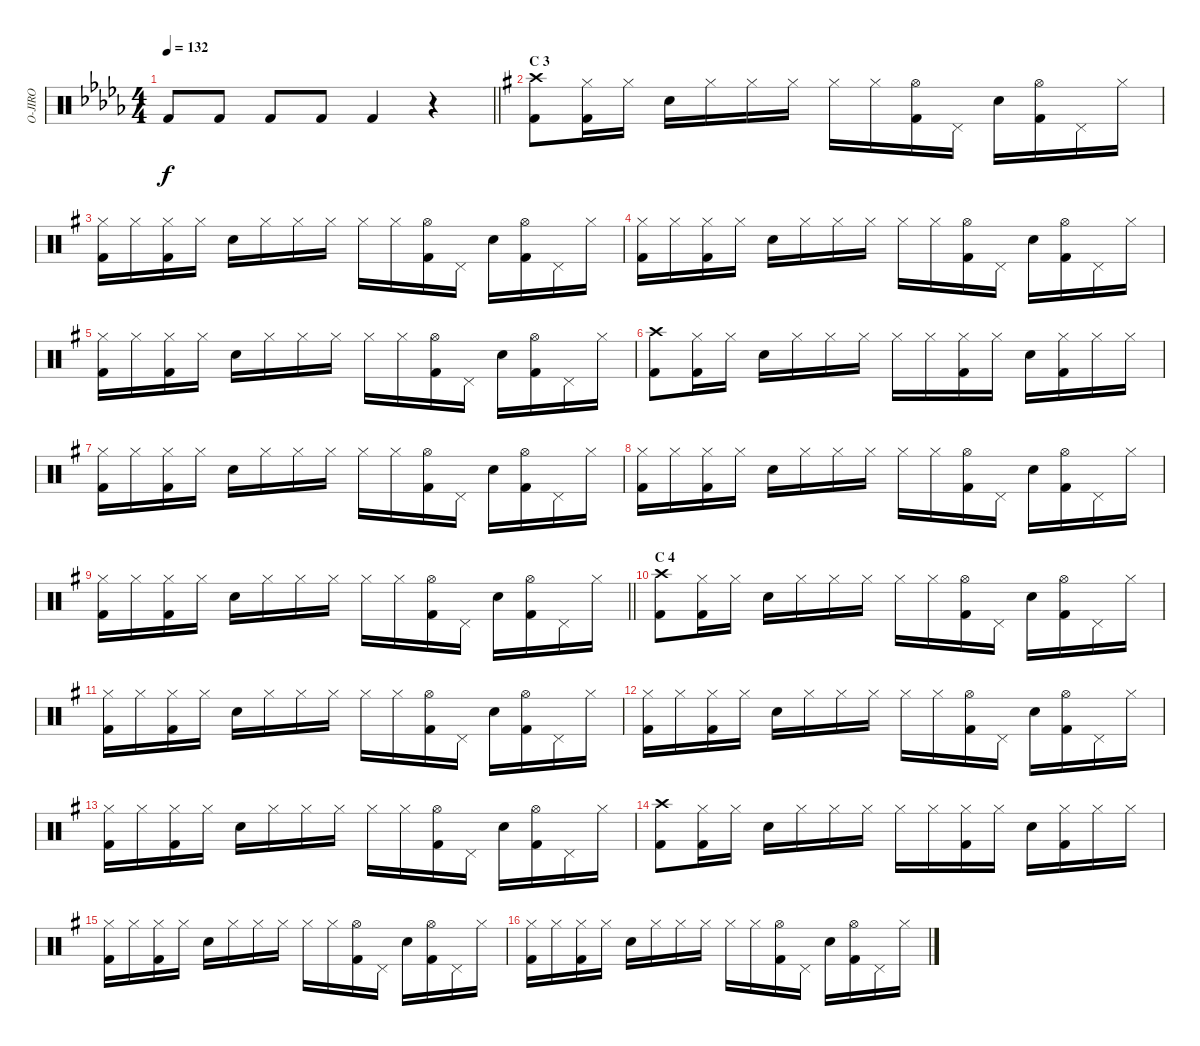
\track ("O-JIRO" "O-JIRO") {instrument percussion}
\staff {score}
\articulation defaults
\ts (4 4)
\tempo 132
\clef neutral
\barLineRight lightlight
\ks db "Kick (hit) 2".8{dy f} "Kick (hit) 2".8 "Kick (hit) 2".8 "Kick (hit) 2".8 "Kick (hit) 2".4
r.4 |
\section ("" "C 3")
\ks g
("Crash high (hit)" "Kick (hit) 2").8 ("Hi-Hat (closed)" "Kick (hit) 2").16 "Hi-Hat (closed)".16 "Snare (hit) 2".16 "Hi-Hat (closed)".16 "Hi-Hat (closed)".16 "Hi-Hat (closed)".16 "Hi-Hat (closed)".16 "Hi-Hat (closed)".16 ("Hi-Hat (open)" "Kick (hit) 2").16 "Pedal Hi-Hat (hit)".16 "Snare (hit) 2".16 ("Hi-Hat (open)" "Kick (hit) 2").16 "Pedal Hi-Hat (hit)".16 "Hi-Hat (closed)".16 |
("Hi-Hat (closed)" "Kick (hit) 2").16 "Hi-Hat (closed)".16 ("Hi-Hat (closed)" "Kick (hit) 2").16 "Hi-Hat (closed)".16 "Snare (hit) 2".16 "Hi-Hat (closed)".16 "Hi-Hat (closed)".16 "Hi-Hat (closed)".16 "Hi-Hat (closed)".16 "Hi-Hat (closed)".16 ("Hi-Hat (open)" "Kick (hit) 2").16 "Pedal Hi-Hat (hit)".16 "Snare (hit) 2".16 ("Hi-Hat (open)" "Kick (hit) 2").16 "Pedal Hi-Hat (hit)".16 "Hi-Hat (closed)".16 |
("Hi-Hat (closed)" "Kick (hit) 2").16 "Hi-Hat (closed)".16 ("Hi-Hat (closed)" "Kick (hit) 2").16 "Hi-Hat (closed)".16 "Snare (hit) 2".16 "Hi-Hat (closed)".16 "Hi-Hat (closed)".16 "Hi-Hat (closed)".16 "Hi-Hat (closed)".16 "Hi-Hat (closed)".16 ("Hi-Hat (open)" "Kick (hit) 2").16 "Pedal Hi-Hat (hit)".16 "Snare (hit) 2".16 ("Hi-Hat (open)" "Kick (hit) 2").16 "Pedal Hi-Hat (hit)".16 "Hi-Hat (closed)".16 |
("Hi-Hat (closed)" "Kick (hit) 2").16 "Hi-Hat (closed)".16 ("Hi-Hat (closed)" "Kick (hit) 2").16 "Hi-Hat (closed)".16 "Snare (hit) 2".16 "Hi-Hat (closed)".16 "Hi-Hat (closed)".16 "Hi-Hat (closed)".16 "Hi-Hat (closed)".16 "Hi-Hat (closed)".16 ("Hi-Hat (open)" "Kick (hit) 2").16 "Pedal Hi-Hat (hit)".16 "Snare (hit) 2".16 ("Hi-Hat (open)" "Kick (hit) 2").16 "Pedal Hi-Hat (hit)".16 "Hi-Hat (closed)".16 |
("Crash high (hit)" "Kick (hit) 2").8 ("Hi-Hat (closed)" "Kick (hit) 2").16 "Hi-Hat (closed)".16 "Snare (hit) 2".16 "Hi-Hat (closed)".16 "Hi-Hat (closed)".16 "Hi-Hat (closed)".16 "Hi-Hat (closed)".16 "Hi-Hat (closed)".16 ("Hi-Hat (closed)" "Kick (hit) 2").16 "Hi-Hat (closed)".16 "Snare (hit) 2".16 ("Hi-Hat (closed)" "Kick (hit) 2").16 "Hi-Hat (closed)".16 "Hi-Hat (closed)".16 |
("Hi-Hat (closed)" "Kick (hit) 2").16 "Hi-Hat (closed)".16 ("Hi-Hat (closed)" "Kick (hit) 2").16 "Hi-Hat (closed)".16 "Snare (hit) 2".16 "Hi-Hat (closed)".16 "Hi-Hat (closed)".16 "Hi-Hat (closed)".16 "Hi-Hat (closed)".16 "Hi-Hat (closed)".16 ("Hi-Hat (open)" "Kick (hit) 2").16 "Pedal Hi-Hat (hit)".16 "Snare (hit) 2".16 ("Hi-Hat (open)" "Kick (hit) 2").16 "Pedal Hi-Hat (hit)".16 "Hi-Hat (closed)".16 |
("Hi-Hat (closed)" "Kick (hit) 2").16 "Hi-Hat (closed)".16 ("Hi-Hat (closed)" "Kick (hit) 2").16 "Hi-Hat (closed)".16 "Snare (hit) 2".16 "Hi-Hat (closed)".16 "Hi-Hat (closed)".16 "Hi-Hat (closed)".16 "Hi-Hat (closed)".16 "Hi-Hat (closed)".16 ("Hi-Hat (open)" "Kick (hit) 2").16 "Pedal Hi-Hat (hit)".16 "Snare (hit) 2".16 ("Hi-Hat (open)" "Kick (hit) 2").16 "Pedal Hi-Hat (hit)".16 "Hi-Hat (closed)".16 |
\barLineRight lightlight
("Hi-Hat (closed)" "Kick (hit) 2").16 "Hi-Hat (closed)".16 ("Hi-Hat (closed)" "Kick (hit) 2").16 "Hi-Hat (closed)".16 "Snare (hit) 2".16 "Hi-Hat (closed)".16 "Hi-Hat (closed)".16 "Hi-Hat (closed)".16 "Hi-Hat (closed)".16 "Hi-Hat (closed)".16 ("Hi-Hat (open)" "Kick (hit) 2").16 "Pedal Hi-Hat (hit)".16 "Snare (hit) 2".16 ("Hi-Hat (open)" "Kick (hit) 2").16 "Pedal Hi-Hat (hit)".16 "Hi-Hat (closed)".16 |
\section ("" "C 4")
("Crash high (hit)" "Kick (hit) 2").8 ("Hi-Hat (closed)" "Kick (hit) 2").16 "Hi-Hat (closed)".16 "Snare (hit) 2".16 "Hi-Hat (closed)".16 "Hi-Hat (closed)".16 "Hi-Hat (closed)".16 "Hi-Hat (closed)".16 "Hi-Hat (closed)".16 ("Hi-Hat (open)" "Kick (hit) 2").16 "Pedal Hi-Hat (hit)".16 "Snare (hit) 2".16 ("Hi-Hat (open)" "Kick (hit) 2").16 "Pedal Hi-Hat (hit)".16 "Hi-Hat (closed)".16 |
("Hi-Hat (closed)" "Kick (hit) 2").16 "Hi-Hat (closed)".16 ("Hi-Hat (closed)" "Kick (hit) 2").16 "Hi-Hat (closed)".16 "Snare (hit) 2".16 "Hi-Hat (closed)".16 "Hi-Hat (closed)".16 "Hi-Hat (closed)".16 "Hi-Hat (closed)".16 "Hi-Hat (closed)".16 ("Hi-Hat (open)" "Kick (hit) 2").16 "Pedal Hi-Hat (hit)".16 "Snare (hit) 2".16 ("Hi-Hat (open)" "Kick (hit) 2").16 "Pedal Hi-Hat (hit)".16 "Hi-Hat (closed)".16 |
("Hi-Hat (closed)" "Kick (hit) 2").16 "Hi-Hat (closed)".16 ("Hi-Hat (closed)" "Kick (hit) 2").16 "Hi-Hat (closed)".16 "Snare (hit) 2".16 "Hi-Hat (closed)".16 "Hi-Hat (closed)".16 "Hi-Hat (closed)".16 "Hi-Hat (closed)".16 "Hi-Hat (closed)".16 ("Hi-Hat (open)" "Kick (hit) 2").16 "Pedal Hi-Hat (hit)".16 "Snare (hit) 2".16 ("Hi-Hat (open)" "Kick (hit) 2").16 "Pedal Hi-Hat (hit)".16 "Hi-Hat (closed)".16 |
("Hi-Hat (closed)" "Kick (hit) 2").16 "Hi-Hat (closed)".16 ("Hi-Hat (closed)" "Kick (hit) 2").16 "Hi-Hat (closed)".16 "Snare (hit) 2".16 "Hi-Hat (closed)".16 "Hi-Hat (closed)".16 "Hi-Hat (closed)".16 "Hi-Hat (closed)".16 "Hi-Hat (closed)".16 ("Hi-Hat (open)" "Kick (hit) 2").16 "Pedal Hi-Hat (hit)".16 "Snare (hit) 2".16 ("Hi-Hat (open)" "Kick (hit) 2").16 "Pedal Hi-Hat (hit)".16 "Hi-Hat (closed)".16 |
("Crash high (hit)" "Kick (hit) 2").8 ("Hi-Hat (closed)" "Kick (hit) 2").16 "Hi-Hat (closed)".16 "Snare (hit) 2".16 "Hi-Hat (closed)".16 "Hi-Hat (closed)".16 "Hi-Hat (closed)".16 "Hi-Hat (closed)".16 "Hi-Hat (closed)".16 ("Hi-Hat (closed)" "Kick (hit) 2").16 "Hi-Hat (closed)".16 "Snare (hit) 2".16 ("Hi-Hat (closed)" "Kick (hit) 2").16 "Hi-Hat (closed)".16 "Hi-Hat (closed)".16 |
("Hi-Hat (closed)" "Kick (hit) 2").16 "Hi-Hat (closed)".16 ("Hi-Hat (closed)" "Kick (hit) 2").16 "Hi-Hat (closed)".16 "Snare (hit) 2".16 "Hi-Hat (closed)".16 "Hi-Hat (closed)".16 "Hi-Hat (closed)".16 "Hi-Hat (closed)".16 "Hi-Hat (closed)".16 ("Hi-Hat (open)" "Kick (hit) 2").16 "Pedal Hi-Hat (hit)".16 "Snare (hit) 2".16 ("Hi-Hat (open)" "Kick (hit) 2").16 "Pedal Hi-Hat (hit)".16 "Hi-Hat (closed)".16 |
("Hi-Hat (closed)" "Kick (hit) 2").16 "Hi-Hat (closed)".16 ("Hi-Hat (closed)" "Kick (hit) 2").16 "Hi-Hat (closed)".16 "Snare (hit) 2".16 "Hi-Hat (closed)".16 "Hi-Hat (closed)".16 "Hi-Hat (closed)".16 "Hi-Hat (closed)".16 "Hi-Hat (closed)".16 ("Hi-Hat (open)" "Kick (hit) 2").16 "Pedal Hi-Hat (hit)".16 "Snare (hit) 2".16 ("Hi-Hat (open)" "Kick (hit) 2").16 "Pedal Hi-Hat (hit)".16 "Hi-Hat (closed)".16
